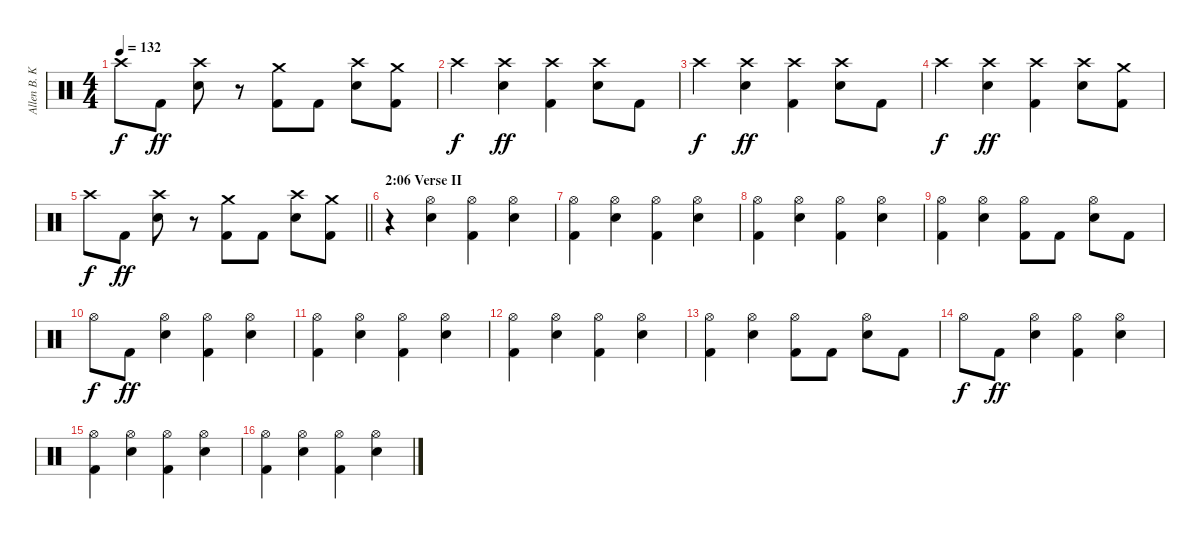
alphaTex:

\track ("Allen B. Konstanz (Drums)" "Allen B. K") {instrument percussion}
\staff {score}
\articulation defaults
\ts (4 4)
\tempo 132
\clef neutral
\ks c "Crash high (hit)".8{dy f} "Kick (hit) 2".8{dy ff}
("Electric Snare (hit)" "Crash high (hit)").8 r.8 ("Kick (hit) 2" "Crash medium (hit)").8 "Kick (hit) 2".8 ("Electric Snare (hit)" "Crash high (hit)").8 ("Kick (hit) 2" "Crash medium (hit)").8 |
"Crash high (hit)".4{dy f} ("Electric Snare (hit)" "Crash high (hit)").4{dy ff} ("Kick (hit) 2" "Crash high (hit)").4 ("Electric Snare (hit)" "Crash high (hit)").8 "Kick (hit) 2".8 |
"Crash high (hit)".4{dy f} ("Electric Snare (hit)" "Crash high (hit)").4{dy ff} ("Kick (hit) 2" "Crash high (hit)").4 ("Electric Snare (hit)" "Crash high (hit)").8 "Kick (hit) 2".8 |
"Crash high (hit)".4{dy f} ("Electric Snare (hit)" "Crash high (hit)").4{dy ff} ("Kick (hit) 2" "Crash high (hit)").4 ("Electric Snare (hit)" "Crash high (hit)").8 ("Kick (hit) 2" "Crash medium (hit)").8 |
\barLineRight lightlight "Crash high (hit)".8{dy f} "Kick (hit) 2".8{dy ff}
("Electric Snare (hit)" "Crash high (hit)").8 r.8 ("Kick (hit) 2" "Crash medium (hit)").8 "Kick (hit) 2".8 ("Electric Snare (hit)" "Crash high (hit)").8 ("Kick (hit) 2" "Crash medium (hit)").8 |
\section ("" "2:06 Verse II")
r.4 ("Electric Snare (hit)" "Hi-Hat (open)").4 ("Kick (hit) 2" "Hi-Hat (open)").4 ("Electric Snare (hit)" "Hi-Hat (open)").4 |
("Kick (hit) 2" "Hi-Hat (open)").4 ("Electric Snare (hit)" "Hi-Hat (open)").4 ("Kick (hit) 2" "Hi-Hat (open)").4 ("Electric Snare (hit)" "Hi-Hat (open)").4 |
("Kick (hit) 2" "Hi-Hat (open)").4 ("Electric Snare (hit)" "Hi-Hat (open)").4 ("Kick (hit) 2" "Hi-Hat (open)").4 ("Electric Snare (hit)" "Hi-Hat (open)").4 |
("Kick (hit) 2" "Hi-Hat (open)").4 ("Electric Snare (hit)" "Hi-Hat (open)").4 ("Kick (hit) 2" "Hi-Hat (open)").8 "Kick (hit) 2".8 ("Electric Snare (hit)" "Hi-Hat (open)").8 "Kick (hit) 2".8 |
"Hi-Hat (open)".8{dy f} "Kick (hit) 2".8{dy ff} ("Electric Snare (hit)" "Hi-Hat (open)").4 ("Kick (hit) 2" "Hi-Hat (open)").4 ("Electric Snare (hit)" "Hi-Hat (open)").4 |
("Kick (hit) 2" "Hi-Hat (open)").4 ("Electric Snare (hit)" "Hi-Hat (open)").4 ("Kick (hit) 2" "Hi-Hat (open)").4 ("Electric Snare (hit)" "Hi-Hat (open)").4 |
("Kick (hit) 2" "Hi-Hat (open)").4 ("Electric Snare (hit)" "Hi-Hat (open)").4 ("Kick (hit) 2" "Hi-Hat (open)").4 ("Electric Snare (hit)" "Hi-Hat (open)").4 |
("Kick (hit) 2" "Hi-Hat (open)").4 ("Electric Snare (hit)" "Hi-Hat (open)").4 ("Kick (hit) 2" "Hi-Hat (open)").8 "Kick (hit) 2".8 ("Electric Snare (hit)" "Hi-Hat (open)").8 "Kick (hit) 2".8 |
"Hi-Hat (open)".8{dy f} "Kick (hit) 2".8{dy ff} ("Electric Snare (hit)" "Hi-Hat (open)").4 ("Kick (hit) 2" "Hi-Hat (open)").4 ("Electric Snare (hit)" "Hi-Hat (open)").4 |
("Kick (hit) 2" "Hi-Hat (open)").4 ("Electric Snare (hit)" "Hi-Hat (open)").4 ("Kick (hit) 2" "Hi-Hat (open)").4 ("Electric Snare (hit)" "Hi-Hat (open)").4 |
("Kick (hit) 2" "Hi-Hat (open)").4 ("Electric Snare (hit)" "Hi-Hat (open)").4 ("Kick (hit) 2" "Hi-Hat (open)").4 ("Electric Snare (hit)" "Hi-Hat (open)").4
